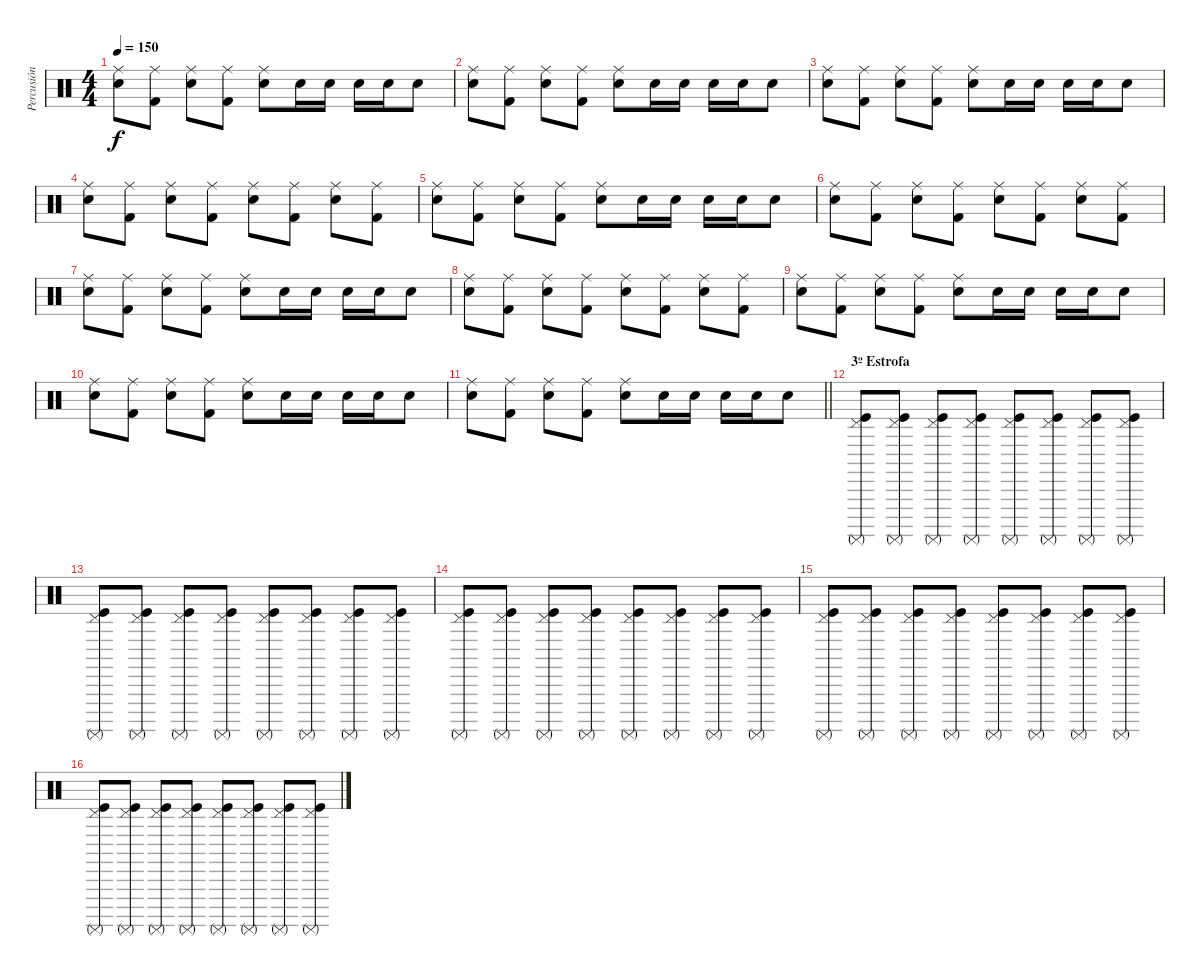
\track ("Percusión" "Percusión") {instrument percussion}
\staff {score}
\articulation defaults
\ts (4 4)
\tempo 150
\clef neutral
\ks c
("Ride (middle)" "Snare (hit) 2").8{dy f} ("Ride (middle)" "Kick (hit) 2").8 ("Ride (middle)" "Snare (hit) 2").8 ("Ride (middle)" "Kick (hit) 2").8 ("Ride (middle)" "Snare (hit) 2").8 "Snare (hit) 2".16 "Snare (hit) 2".16 "Snare (hit) 2".16 "Snare (hit) 2".16 "Snare (hit) 2".8 |
("Ride (middle)" "Snare (hit) 2").8 ("Ride (middle)" "Kick (hit) 2").8 ("Ride (middle)" "Snare (hit) 2").8 ("Ride (middle)" "Kick (hit) 2").8 ("Ride (middle)" "Snare (hit) 2").8 "Snare (hit) 2".16 "Snare (hit) 2".16 "Snare (hit) 2".16 "Snare (hit) 2".16 "Snare (hit) 2".8 |
("Ride (middle)" "Snare (hit) 2").8 ("Ride (middle)" "Kick (hit) 2").8 ("Ride (middle)" "Snare (hit) 2").8 ("Ride (middle)" "Kick (hit) 2").8 ("Ride (middle)" "Snare (hit) 2").8 "Snare (hit) 2".16 "Snare (hit) 2".16 "Snare (hit) 2".16 "Snare (hit) 2".16 "Snare (hit) 2".8 |
("Ride (middle)" "Snare (hit) 2").8 ("Ride (middle)" "Kick (hit) 2").8 ("Ride (middle)" "Snare (hit) 2").8 ("Ride (middle)" "Kick (hit) 2").8 ("Ride (middle)" "Snare (hit) 2").8 ("Ride (middle)" "Kick (hit) 2").8 ("Ride (middle)" "Snare (hit) 2").8 ("Ride (middle)" "Kick (hit) 2").8 |
("Ride (middle)" "Snare (hit) 2").8 ("Ride (middle)" "Kick (hit) 2").8 ("Ride (middle)" "Snare (hit) 2").8 ("Ride (middle)" "Kick (hit) 2").8 ("Ride (middle)" "Snare (hit) 2").8 "Snare (hit) 2".16 "Snare (hit) 2".16 "Snare (hit) 2".16 "Snare (hit) 2".16 "Snare (hit) 2".8 |
("Ride (middle)" "Snare (hit) 2").8 ("Ride (middle)" "Kick (hit) 2").8 ("Ride (middle)" "Snare (hit) 2").8 ("Ride (middle)" "Kick (hit) 2").8 ("Ride (middle)" "Snare (hit) 2").8 ("Ride (middle)" "Kick (hit) 2").8 ("Ride (middle)" "Snare (hit) 2").8 ("Ride (middle)" "Kick (hit) 2").8 |
("Ride (middle)" "Snare (hit) 2").8 ("Ride (middle)" "Kick (hit) 2").8 ("Ride (middle)" "Snare (hit) 2").8 ("Ride (middle)" "Kick (hit) 2").8 ("Ride (middle)" "Snare (hit) 2").8 "Snare (hit) 2".16 "Snare (hit) 2".16 "Snare (hit) 2".16 "Snare (hit) 2".16 "Snare (hit) 2".8 |
("Ride (middle)" "Snare (hit) 2").8 ("Ride (middle)" "Kick (hit) 2").8 ("Ride (middle)" "Snare (hit) 2").8 ("Ride (middle)" "Kick (hit) 2").8 ("Ride (middle)" "Snare (hit) 2").8 ("Ride (middle)" "Kick (hit) 2").8 ("Ride (middle)" "Snare (hit) 2").8 ("Ride (middle)" "Kick (hit) 2").8 |
("Ride (middle)" "Snare (hit) 2").8 ("Ride (middle)" "Kick (hit) 2").8 ("Ride (middle)" "Snare (hit) 2").8 ("Ride (middle)" "Kick (hit) 2").8 ("Ride (middle)" "Snare (hit) 2").8 "Snare (hit) 2".16 "Snare (hit) 2".16 "Snare (hit) 2".16 "Snare (hit) 2".16 "Snare (hit) 2".8 |
("Ride (middle)" "Snare (hit) 2").8 ("Ride (middle)" "Kick (hit) 2").8 ("Ride (middle)" "Snare (hit) 2").8 ("Ride (middle)" "Kick (hit) 2").8 ("Ride (middle)" "Snare (hit) 2").8 "Snare (hit) 2".16 "Snare (hit) 2".16 "Snare (hit) 2".16 "Snare (hit) 2".16 "Snare (hit) 2".8 |
\barLineRight lightlight
("Ride (middle)" "Snare (hit) 2").8 ("Ride (middle)" "Kick (hit) 2").8 ("Ride (middle)" "Snare (hit) 2").8 ("Ride (middle)" "Kick (hit) 2").8 ("Ride (middle)" "Snare (hit) 2").8 "Snare (hit) 2".16 "Snare (hit) 2".16 "Snare (hit) 2".16 "Snare (hit) 2".16 "Snare (hit) 2".8 |
\section ("" "3º Estrofa")
("Surdo (mute)" "Kick (hit)" "Pedal Hi-Hat (hit)").8 ("Surdo (mute)" "Kick (hit)" "Pedal Hi-Hat (hit)").8 ("Surdo (mute)" "Kick (hit)" "Pedal Hi-Hat (hit)").8 ("Surdo (mute)" "Kick (hit)" "Pedal Hi-Hat (hit)").8 ("Surdo (mute)" "Kick (hit)" "Pedal Hi-Hat (hit)").8 ("Surdo (mute)" "Kick (hit)" "Pedal Hi-Hat (hit)").8 ("Surdo (mute)" "Kick (hit)" "Pedal Hi-Hat (hit)").8 ("Surdo (mute)" "Kick (hit)" "Pedal Hi-Hat (hit)").8 |
("Surdo (mute)" "Kick (hit)" "Pedal Hi-Hat (hit)").8 ("Surdo (mute)" "Kick (hit)" "Pedal Hi-Hat (hit)").8 ("Surdo (mute)" "Kick (hit)" "Pedal Hi-Hat (hit)").8 ("Surdo (mute)" "Kick (hit)" "Pedal Hi-Hat (hit)").8 ("Surdo (mute)" "Kick (hit)" "Pedal Hi-Hat (hit)").8 ("Surdo (mute)" "Kick (hit)" "Pedal Hi-Hat (hit)").8 ("Surdo (mute)" "Kick (hit)" "Pedal Hi-Hat (hit)").8 ("Surdo (mute)" "Kick (hit)" "Pedal Hi-Hat (hit)").8 |
("Surdo (mute)" "Kick (hit)" "Pedal Hi-Hat (hit)").8 ("Surdo (mute)" "Kick (hit)" "Pedal Hi-Hat (hit)").8 ("Surdo (mute)" "Kick (hit)" "Pedal Hi-Hat (hit)").8 ("Surdo (mute)" "Kick (hit)" "Pedal Hi-Hat (hit)").8 ("Surdo (mute)" "Kick (hit)" "Pedal Hi-Hat (hit)").8 ("Surdo (mute)" "Kick (hit)" "Pedal Hi-Hat (hit)").8 ("Surdo (mute)" "Kick (hit)" "Pedal Hi-Hat (hit)").8 ("Surdo (mute)" "Kick (hit)" "Pedal Hi-Hat (hit)").8 |
("Surdo (mute)" "Kick (hit)" "Pedal Hi-Hat (hit)").8 ("Surdo (mute)" "Kick (hit)" "Pedal Hi-Hat (hit)").8 ("Surdo (mute)" "Kick (hit)" "Pedal Hi-Hat (hit)").8 ("Surdo (mute)" "Kick (hit)" "Pedal Hi-Hat (hit)").8 ("Surdo (mute)" "Kick (hit)" "Pedal Hi-Hat (hit)").8 ("Surdo (mute)" "Kick (hit)" "Pedal Hi-Hat (hit)").8 ("Surdo (mute)" "Kick (hit)" "Pedal Hi-Hat (hit)").8 ("Surdo (mute)" "Kick (hit)" "Pedal Hi-Hat (hit)").8 |
("Surdo (mute)" "Kick (hit)" "Pedal Hi-Hat (hit)").8 ("Surdo (mute)" "Kick (hit)" "Pedal Hi-Hat (hit)").8 ("Surdo (mute)" "Kick (hit)" "Pedal Hi-Hat (hit)").8 ("Surdo (mute)" "Kick (hit)" "Pedal Hi-Hat (hit)").8 ("Surdo (mute)" "Kick (hit)" "Pedal Hi-Hat (hit)").8 ("Surdo (mute)" "Kick (hit)" "Pedal Hi-Hat (hit)").8 ("Surdo (mute)" "Kick (hit)" "Pedal Hi-Hat (hit)").8 ("Surdo (mute)" "Kick (hit)" "Pedal Hi-Hat (hit)").8
